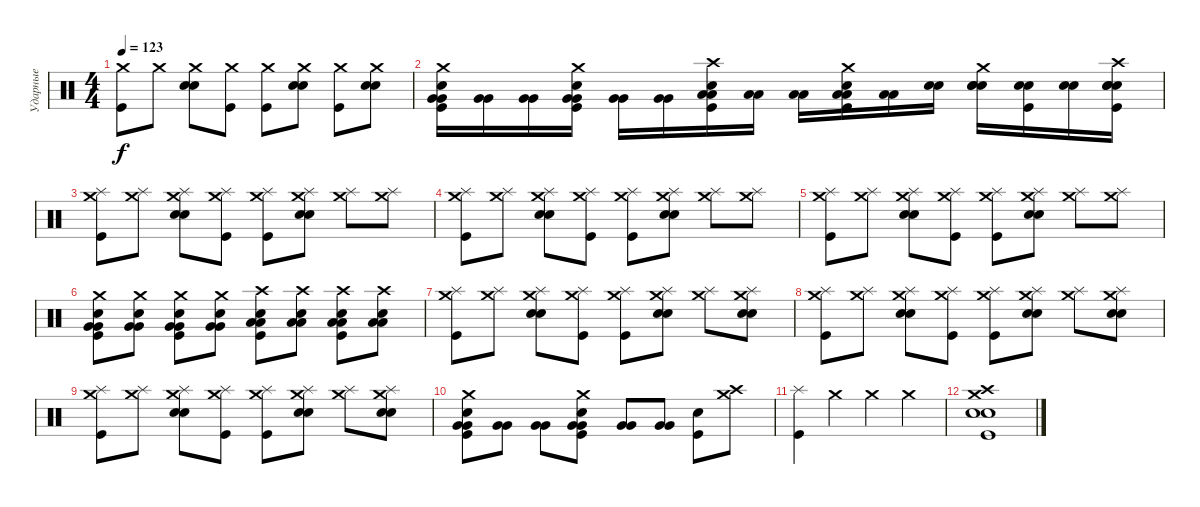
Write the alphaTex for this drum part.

\track ("Ударные" "Ударные") {instrument percussion}
\staff {score}
\articulation defaults
\ts (4 4)
\tempo 123
\clef neutral
\ks c
("Crash medium (hit)" "Kick (hit)").8{dy f} "Crash medium (hit)".8 ("Crash medium (hit)" "Snare (hit) 2" "Snare (hit) 2").8 ("Crash medium (hit)" "Kick (hit)").8 ("Crash medium (hit)" "Kick (hit)").8 ("Crash medium (hit)" "Snare (hit) 2" "Snare (hit) 2").8 ("Crash medium (hit)" "Kick (hit)").8 ("Crash medium (hit)" "Electric Snare (hit)" "Electric Snare (hit)").8 |
("Very Low Tom (hit)" "Very Low Tom (hit)" "Crash medium (hit)" "Snare (hit) 2" "Kick (hit)").16 ("Very Low Tom (hit)" "Very Low Tom (hit)").16 ("Very Low Tom (hit)" "Very Low Tom (hit)").16 ("Very Low Tom (hit)" "Very Low Tom (hit)" "Crash medium (hit)" "Snare (hit) 2" "Kick (hit)").16 ("Very Low Tom (hit)" "Very Low Tom (hit)").16 ("Very Low Tom (hit)" "Very Low Tom (hit)").16 ("Low Floor Tom (hit)" "Low Floor Tom (hit)" "Crash high (hit)" "Electric Snare (hit)" "Kick (hit)").16 ("Low Floor Tom (hit)" "Low Floor Tom (hit)").16 ("Low Floor Tom (hit)" "Low Floor Tom (hit)").16 ("Low Floor Tom (hit)" "Low Floor Tom (hit)" "Crash medium (hit)" "Snare (hit) 2" "Kick (hit)").16 ("Low Floor Tom (hit)" "Low Floor Tom (hit)").16 ("Electric Snare (hit)" "Electric Snare (hit)").16 ("Electric Snare (hit)" "Electric Snare (hit)" "Crash medium (hit)" "Electric Snare (hit)").16 ("Electric Snare (hit)" "Electric Snare (hit)" "Kick (hit)").16 ("Electric Snare (hit)" "Electric Snare (hit)").16 ("Electric Snare (hit)" "Electric Snare (hit)" "Crash high (hit)" "Snare (hit) 2" "Kick (hit)").16 |
("Crash medium (hit)" "Splash (hit)" "Kick (hit)").8 ("Crash medium (hit)" "Splash (hit)").8 ("Crash medium (hit)" "Splash (hit)" "Snare (hit) 2" "Snare (hit) 2").8 ("Crash medium (hit)" "Splash (hit)" "Kick (hit)").8 ("Crash medium (hit)" "Splash (hit)" "Kick (hit)").8 ("Crash medium (hit)" "Splash (hit)" "Snare (hit) 2" "Snare (hit) 2").8 ("Crash medium (hit)" "Splash (hit)").8 ("Crash medium (hit)" "Splash (hit)").8 |
("Crash medium (hit)" "Splash (hit)" "Kick (hit)").8 ("Crash medium (hit)" "Splash (hit)").8 ("Crash medium (hit)" "Splash (hit)" "Snare (hit) 2" "Snare (hit) 2").8 ("Crash medium (hit)" "Splash (hit)" "Kick (hit)").8 ("Crash medium (hit)" "Splash (hit)" "Kick (hit)").8 ("Crash medium (hit)" "Splash (hit)" "Snare (hit) 2" "Snare (hit) 2").8 ("Crash medium (hit)" "Splash (hit)").8 ("Crash medium (hit)" "Splash (hit)").8 |
("Crash medium (hit)" "Splash (hit)" "Kick (hit)").8 ("Crash medium (hit)" "Splash (hit)").8 ("Crash medium (hit)" "Splash (hit)" "Snare (hit) 2" "Snare (hit) 2").8 ("Crash medium (hit)" "Splash (hit)" "Kick (hit)").8 ("Crash medium (hit)" "Splash (hit)" "Kick (hit)").8 ("Crash medium (hit)" "Splash (hit)" "Snare (hit) 2" "Snare (hit) 2").8 ("Crash medium (hit)" "Splash (hit)").8 ("Crash medium (hit)" "Splash (hit)").8 |
("Very Low Tom (hit)" "Very Low Tom (hit)" "Crash medium (hit)" "Snare (hit) 2" "Kick (hit)").8 ("Very Low Tom (hit)" "Very Low Tom (hit)" "Crash medium (hit)" "Snare (hit) 2").8 ("Very Low Tom (hit)" "Very Low Tom (hit)" "Crash medium (hit)" "Snare (hit) 2" "Kick (hit)").8 ("Very Low Tom (hit)" "Very Low Tom (hit)" "Crash medium (hit)" "Snare (hit) 2").8 ("Low Floor Tom (hit)" "Low Floor Tom (hit)" "Crash high (hit)" "Electric Snare (hit)" "Kick (hit)").8 ("Low Floor Tom (hit)" "Low Floor Tom (hit)" "Crash high (hit)" "Electric Snare (hit)").8 ("Low Floor Tom (hit)" "Low Floor Tom (hit)" "Crash high (hit)" "Electric Snare (hit)" "Kick (hit)").8 ("Low Floor Tom (hit)" "Low Floor Tom (hit)" "Crash high (hit)" "Electric Snare (hit)").8 |
("Crash medium (hit)" "Splash (hit)" "Kick (hit)").8 ("Crash medium (hit)" "Splash (hit)").8 ("Crash medium (hit)" "Splash (hit)" "Snare (hit) 2" "Snare (hit) 2").8 ("Crash medium (hit)" "Splash (hit)" "Kick (hit)").8 ("Crash medium (hit)" "Splash (hit)" "Kick (hit)").8 ("Crash medium (hit)" "Splash (hit)" "Snare (hit) 2" "Snare (hit) 2").8 ("Crash medium (hit)" "Splash (hit)").8 ("Crash medium (hit)" "Splash (hit)" "Electric Snare (hit)" "Electric Snare (hit)").8 |
("Crash medium (hit)" "Splash (hit)" "Kick (hit)").8 ("Crash medium (hit)" "Splash (hit)").8 ("Crash medium (hit)" "Splash (hit)" "Snare (hit) 2" "Snare (hit) 2").8 ("Crash medium (hit)" "Splash (hit)" "Kick (hit)").8 ("Crash medium (hit)" "Splash (hit)" "Kick (hit)").8 ("Crash medium (hit)" "Splash (hit)" "Snare (hit) 2" "Snare (hit) 2").8 ("Crash medium (hit)" "Splash (hit)").8 ("Crash medium (hit)" "Splash (hit)" "Electric Snare (hit)" "Electric Snare (hit)").8 |
("Crash medium (hit)" "Splash (hit)" "Kick (hit)").8 ("Crash medium (hit)" "Splash (hit)").8 ("Crash medium (hit)" "Splash (hit)" "Snare (hit) 2" "Snare (hit) 2").8 ("Crash medium (hit)" "Splash (hit)" "Kick (hit)").8 ("Crash medium (hit)" "Splash (hit)" "Kick (hit)").8 ("Crash medium (hit)" "Splash (hit)" "Snare (hit) 2" "Snare (hit) 2").8 ("Crash medium (hit)" "Splash (hit)").8 ("Crash medium (hit)" "Splash (hit)" "Electric Snare (hit)" "Electric Snare (hit)").8 |
("Very Low Tom (hit)" "Very Low Tom (hit)" "Crash medium (hit)" "Snare (hit) 2" "Kick (hit)").8 ("Very Low Tom (hit)" "Very Low Tom (hit)").8 ("Very Low Tom (hit)" "Very Low Tom (hit)").8 ("Very Low Tom (hit)" "Very Low Tom (hit)" "Crash medium (hit)" "Snare (hit) 2" "Kick (hit)").8 ("Very Low Tom (hit)" "Very Low Tom (hit)").8 ("Very Low Tom (hit)" "Very Low Tom (hit)").8 ("Electric Snare (hit)" "Kick (hit)").8 ("Crash high (hit)" "Crash medium (hit)").8 |
("Splash (hit)" "Kick (hit)").4 "Crash medium (hit)".4 "Crash medium (hit)".4 "Crash medium (hit)".4 |
("Crash high (hit)" "Crash medium (hit)" "Electric Snare (hit)" "Electric Snare (hit)" "Kick (hit)").1
